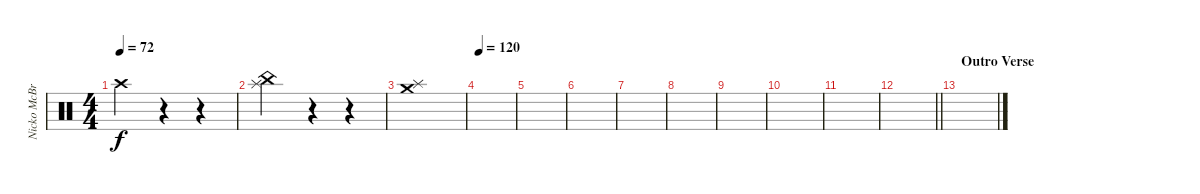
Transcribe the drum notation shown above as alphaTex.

\track ("Nicko McBrain" "Nicko McBr") {instrument percussion}
\staff {score}
\articulation defaults
\ts (4 4)
\tempo 72
\clef neutral
\ks c "Crash high (hit)".2{dy f volume 16}
r.4 r.4{volume 0} |
("Splash (hit)" "China (hit)").2{volume 16} r.4 r.4{volume 0} |
("Crash medium (hit)" "Splash (hit)").1{volume 16} |
\tempo 120
|
|
|
|
|
|
|
|
\barLineRight lightlight
|
\section ("" "Outro Verse")
